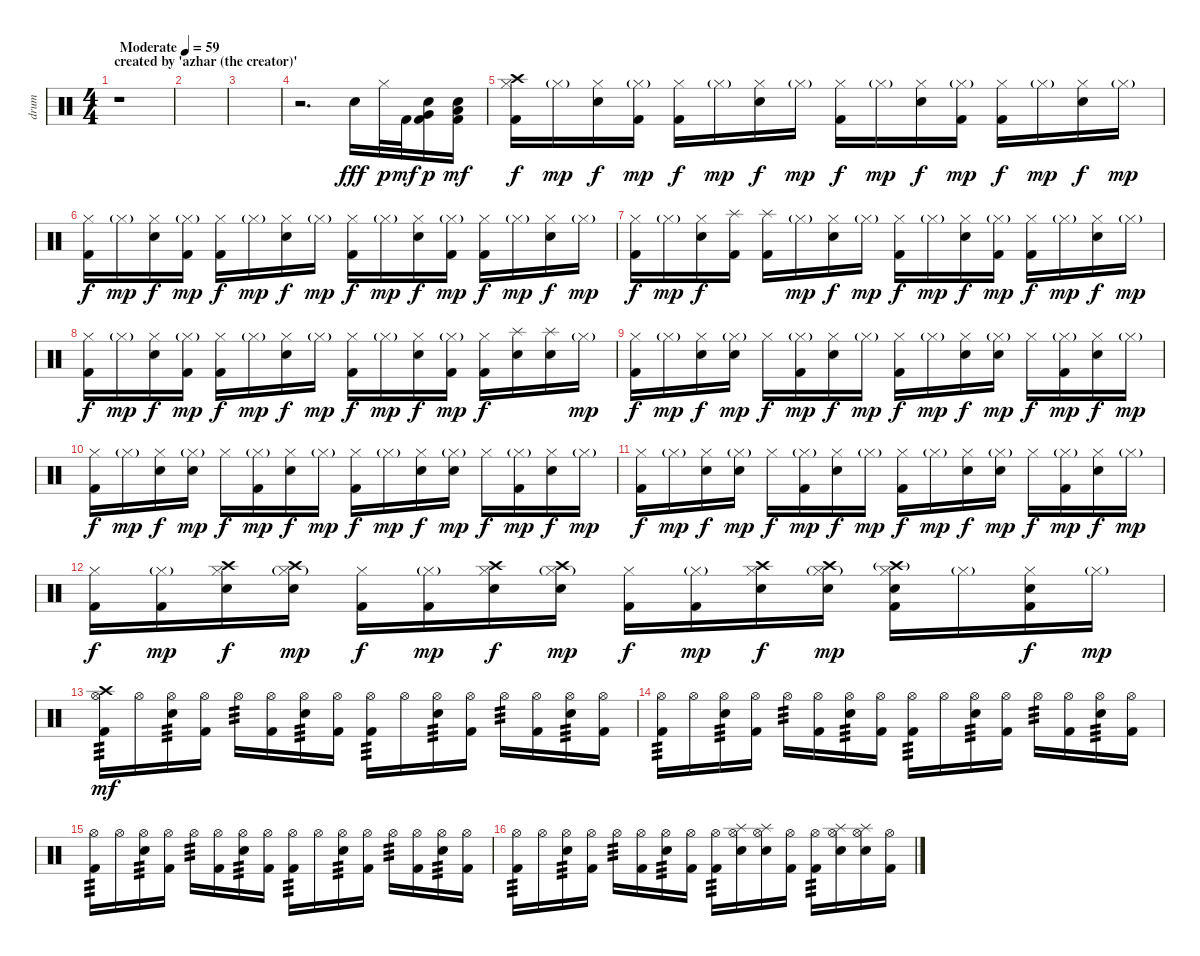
\track ("drum" "drum") {instrument percussion}
\staff {score}
\articulation defaults
\ts (4 4)
\section ("" "created by 'azhar (the creator)'")
\tempo (59 "Moderate")
\clef neutral
\ks c
r.1{dy fff} |
|
|
r.2{d} "Electric Snare (hit)".16 "Hi-Hat (closed)".32{dy p} "Kick (hit) 2".32{dy mf} ("Very Low Tom (hit)" "Electric Snare (hit)" "Kick (hit) 2").16{dy p} ("Low Floor Tom (hit)" "Electric Snare (hit)" "Kick (hit) 2").16{dy mf} |
("Crash high (hit)" "Hi-Hat (closed)" "Kick (hit) 2").16{dy f} "Hi-Hat (closed)"{g}.16{dy mp} ("Hi-Hat (closed)" "Electric Snare (hit)").16{dy f} ("Hi-Hat (closed)"{g} "Kick (hit) 2").16{dy mp} ("Hi-Hat (closed)" "Kick (hit) 2").16{dy f} "Hi-Hat (closed)"{g}.16{dy mp} ("Hi-Hat (closed)" "Electric Snare (hit)").16{dy f} "Hi-Hat (closed)"{g}.16{dy mp} ("Hi-Hat (closed)" "Kick (hit) 2").16{dy f} "Hi-Hat (closed)"{g}.16{dy mp} ("Hi-Hat (closed)" "Electric Snare (hit)").16{dy f} ("Hi-Hat (closed)"{g} "Kick (hit) 2").16{dy mp} ("Hi-Hat (closed)" "Kick (hit) 2").16{dy f} "Hi-Hat (closed)"{g}.16{dy mp} ("Hi-Hat (closed)" "Electric Snare (hit)").16{dy f} "Hi-Hat (closed)"{g}.16{dy mp} |
("Hi-Hat (closed)" "Kick (hit) 2").16{dy f} "Hi-Hat (closed)"{g}.16{dy mp} ("Hi-Hat (closed)" "Electric Snare (hit)").16{dy f} ("Hi-Hat (closed)"{g} "Kick (hit) 2").16{dy mp} ("Hi-Hat (closed)" "Kick (hit) 2").16{dy f} "Hi-Hat (closed)"{g}.16{dy mp} ("Hi-Hat (closed)" "Electric Snare (hit)").16{dy f} "Hi-Hat (closed)"{g}.16{dy mp} ("Hi-Hat (closed)" "Kick (hit) 2").16{dy f} "Hi-Hat (closed)"{g}.16{dy mp} ("Hi-Hat (closed)" "Electric Snare (hit)").16{dy f} ("Hi-Hat (closed)"{g} "Kick (hit) 2").16{dy mp} ("Hi-Hat (closed)" "Kick (hit) 2").16{dy f} "Hi-Hat (closed)"{g}.16{dy mp} ("Hi-Hat (closed)" "Electric Snare (hit)").16{dy f} "Hi-Hat (closed)"{g}.16{dy mp} |
("Hi-Hat (closed)" "Kick (hit) 2").16{dy f} "Hi-Hat (closed)"{g}.16{dy mp} ("Hi-Hat (closed)" "Electric Snare (hit)").16{dy f} ("Splash (hit)" "Kick (hit) 2").16 ("Splash (hit)" "Kick (hit) 2").16 "Hi-Hat (closed)"{g}.16{dy mp} ("Hi-Hat (closed)" "Electric Snare (hit)").16{dy f} "Hi-Hat (closed)"{g}.16{dy mp} ("Hi-Hat (closed)" "Kick (hit) 2").16{dy f} "Hi-Hat (closed)"{g}.16{dy mp} ("Hi-Hat (closed)" "Electric Snare (hit)").16{dy f} ("Hi-Hat (closed)"{g} "Kick (hit) 2").16{dy mp} ("Hi-Hat (closed)" "Kick (hit) 2").16{dy f} "Hi-Hat (closed)"{g}.16{dy mp} ("Hi-Hat (closed)" "Electric Snare (hit)").16{dy f} "Hi-Hat (closed)"{g}.16{dy mp} |
("Hi-Hat (closed)" "Kick (hit) 2").16{dy f} "Hi-Hat (closed)"{g}.16{dy mp} ("Hi-Hat (closed)" "Electric Snare (hit)").16{dy f} ("Hi-Hat (closed)"{g} "Kick (hit) 2").16{dy mp} ("Hi-Hat (closed)" "Kick (hit) 2").16{dy f} "Hi-Hat (closed)"{g}.16{dy mp} ("Hi-Hat (closed)" "Electric Snare (hit)").16{dy f} "Hi-Hat (closed)"{g}.16{dy mp} ("Hi-Hat (closed)" "Kick (hit) 2").16{dy f} "Hi-Hat (closed)"{g}.16{dy mp} ("Hi-Hat (closed)" "Electric Snare (hit)").16{dy f} ("Hi-Hat (closed)"{g} "Kick (hit) 2").16{dy mp} ("Hi-Hat (closed)" "Kick (hit) 2").16{dy f} ("Splash (hit)" "Electric Snare (hit)").16 ("Splash (hit)" "Electric Snare (hit)").16 "Hi-Hat (closed)"{g}.16{dy mp} |
("Hi-Hat (closed)" "Kick (hit) 2").16{dy f} "Hi-Hat (closed)"{g}.16{dy mp} ("Hi-Hat (closed)" "Electric Snare (hit)").16{dy f} ("Hi-Hat (closed)"{g} "Electric Snare (hit)").16{dy mp} "Hi-Hat (closed)".16{dy f} ("Hi-Hat (closed)"{g} "Kick (hit) 2").16{dy mp} ("Hi-Hat (closed)" "Electric Snare (hit)").16{dy f} "Hi-Hat (closed)"{g}.16{dy mp} ("Hi-Hat (closed)" "Kick (hit) 2").16{dy f} "Hi-Hat (closed)"{g}.16{dy mp} ("Hi-Hat (closed)" "Electric Snare (hit)").16{dy f} ("Hi-Hat (closed)"{g} "Electric Snare (hit)").16{dy mp} "Hi-Hat (closed)".16{dy f} ("Hi-Hat (closed)"{g} "Kick (hit) 2").16{dy mp} ("Hi-Hat (closed)" "Electric Snare (hit)").16{dy f} "Hi-Hat (closed)"{g}.16{dy mp} |
("Hi-Hat (closed)" "Kick (hit) 2").16{dy f} "Hi-Hat (closed)"{g}.16{dy mp} ("Hi-Hat (closed)" "Electric Snare (hit)").16{dy f} ("Hi-Hat (closed)"{g} "Electric Snare (hit)").16{dy mp} "Hi-Hat (closed)".16{dy f} ("Hi-Hat (closed)"{g} "Kick (hit) 2").16{dy mp} ("Hi-Hat (closed)" "Electric Snare (hit)").16{dy f} "Hi-Hat (closed)"{g}.16{dy mp} ("Hi-Hat (closed)" "Kick (hit) 2").16{dy f} "Hi-Hat (closed)"{g}.16{dy mp} ("Hi-Hat (closed)" "Electric Snare (hit)").16{dy f} ("Hi-Hat (closed)"{g} "Electric Snare (hit)").16{dy mp} "Hi-Hat (closed)".16{dy f} ("Hi-Hat (closed)"{g} "Kick (hit) 2").16{dy mp} ("Hi-Hat (closed)" "Electric Snare (hit)").16{dy f} "Hi-Hat (closed)"{g}.16{dy mp} |
("Hi-Hat (closed)" "Kick (hit) 2").16{dy f} "Hi-Hat (closed)"{g}.16{dy mp} ("Hi-Hat (closed)" "Electric Snare (hit)").16{dy f} ("Hi-Hat (closed)"{g} "Electric Snare (hit)").16{dy mp} "Hi-Hat (closed)".16{dy f} ("Hi-Hat (closed)"{g} "Kick (hit) 2").16{dy mp} ("Hi-Hat (closed)" "Electric Snare (hit)").16{dy f} "Hi-Hat (closed)"{g}.16{dy mp} ("Hi-Hat (closed)" "Kick (hit) 2").16{dy f} "Hi-Hat (closed)"{g}.16{dy mp} ("Hi-Hat (closed)" "Electric Snare (hit)").16{dy f} ("Hi-Hat (closed)"{g} "Electric Snare (hit)").16{dy mp} "Hi-Hat (closed)".16{dy f} ("Hi-Hat (closed)"{g} "Kick (hit) 2").16{dy mp} ("Hi-Hat (closed)" "Electric Snare (hit)").16{dy f} "Hi-Hat (closed)"{g}.16{dy mp} |
("Hi-Hat (closed)" "Kick (hit) 2").16{dy f} ("Hi-Hat (closed)"{g} "Kick (hit) 2").16{dy mp} ("Crash high (hit)" "Hi-Hat (closed)" "Electric Snare (hit)").16{dy f} ("Crash high (hit)" "Hi-Hat (closed)"{g} "Electric Snare (hit)").16{dy mp} ("Hi-Hat (closed)" "Kick (hit) 2").16{dy f} ("Hi-Hat (closed)"{g} "Kick (hit) 2").16{dy mp} ("Crash high (hit)" "Hi-Hat (closed)" "Electric Snare (hit)").16{dy f} ("Crash high (hit)" "Hi-Hat (closed)"{g} "Electric Snare (hit)").16{dy mp} ("Hi-Hat (closed)" "Kick (hit) 2").16{dy f} ("Hi-Hat (closed)"{g} "Kick (hit) 2").16{dy mp} ("Crash high (hit)" "Hi-Hat (closed)" "Electric Snare (hit)").16{dy f} ("Crash high (hit)" "Hi-Hat (closed)"{g} "Electric Snare (hit)").16{dy mp} ("Crash high (hit)"{g} "Hi-Hat (closed)" "Electric Snare (hit)" "Kick (hit) 2").16 "Hi-Hat (closed)"{g}.16 ("Hi-Hat (closed)" "Electric Snare (hit)" "Kick (hit) 2").16{dy f} "Hi-Hat (closed)"{g}.16{dy mp} |
("Crash high (hit)" "Hi-Hat (open)" "Kick (hit) 2").16{tp 3 dy mf} "Hi-Hat (open)".16 ("Hi-Hat (open)" "Electric Snare (hit)").16{tp 3} ("Hi-Hat (open)" "Kick (hit) 2").16 "Hi-Hat (open)".16{tp 3} ("Hi-Hat (open)" "Kick (hit) 2").16 ("Hi-Hat (open)" "Electric Snare (hit)").16{tp 3} ("Hi-Hat (open)" "Kick (hit) 2").16 ("Hi-Hat (open)" "Kick (hit) 2").16{tp 3} "Hi-Hat (open)".16 ("Hi-Hat (open)" "Electric Snare (hit)").16{tp 3} ("Hi-Hat (open)" "Kick (hit) 2").16 "Hi-Hat (open)".16{tp 3} ("Hi-Hat (open)" "Kick (hit) 2").16 ("Hi-Hat (open)" "Electric Snare (hit)").16{tp 3} ("Hi-Hat (open)" "Kick (hit) 2").16 |
("Hi-Hat (open)" "Kick (hit) 2").16{tp 3} "Hi-Hat (open)".16 ("Hi-Hat (open)" "Electric Snare (hit)").16{tp 3} ("Hi-Hat (open)" "Kick (hit) 2").16 "Hi-Hat (open)".16{tp 3} ("Hi-Hat (open)" "Kick (hit) 2").16 ("Hi-Hat (open)" "Electric Snare (hit)").16{tp 3} ("Hi-Hat (open)" "Kick (hit) 2").16 ("Hi-Hat (open)" "Kick (hit) 2").16{tp 3} "Hi-Hat (open)".16 ("Hi-Hat (open)" "Electric Snare (hit)").16{tp 3} ("Hi-Hat (open)" "Kick (hit) 2").16 "Hi-Hat (open)".16{tp 3} ("Hi-Hat (open)" "Kick (hit) 2").16 ("Hi-Hat (open)" "Electric Snare (hit)").16{tp 3} ("Hi-Hat (open)" "Kick (hit) 2").16 |
("Hi-Hat (open)" "Kick (hit) 2").16{tp 3} "Hi-Hat (open)".16 ("Hi-Hat (open)" "Electric Snare (hit)").16{tp 3} ("Hi-Hat (open)" "Kick (hit) 2").16 "Hi-Hat (open)".16{tp 3} ("Hi-Hat (open)" "Kick (hit) 2").16 ("Hi-Hat (open)" "Electric Snare (hit)").16{tp 3} ("Hi-Hat (open)" "Kick (hit) 2").16 ("Hi-Hat (open)" "Kick (hit) 2").16{tp 3} "Hi-Hat (open)".16 ("Hi-Hat (open)" "Electric Snare (hit)").16{tp 3} ("Hi-Hat (open)" "Kick (hit) 2").16 "Hi-Hat (open)".16{tp 3} ("Hi-Hat (open)" "Kick (hit) 2").16 ("Hi-Hat (open)" "Electric Snare (hit)").16{tp 3} ("Hi-Hat (open)" "Kick (hit) 2").16 |
("Hi-Hat (open)" "Kick (hit) 2").16{tp 3} "Hi-Hat (open)".16 ("Hi-Hat (open)" "Electric Snare (hit)").16{tp 3} ("Hi-Hat (open)" "Kick (hit) 2").16 "Hi-Hat (open)".16{tp 3} ("Hi-Hat (open)" "Kick (hit) 2").16 ("Hi-Hat (open)" "Electric Snare (hit)").16{tp 3} ("Hi-Hat (open)" "Kick (hit) 2").16 ("Hi-Hat (open)" "Kick (hit) 2").16{tp 3} ("Splash (hit)" "Hi-Hat (open)" "Electric Snare (hit)").16 ("Splash (hit)" "Hi-Hat (open)" "Electric Snare (hit)").16 ("Hi-Hat (open)" "Kick (hit) 2").16 ("Hi-Hat (open)" "Kick (hit) 2").16{tp 3} ("Splash (hit)" "Hi-Hat (open)" "Electric Snare (hit)").16 ("Splash (hit)" "Hi-Hat (open)" "Electric Snare (hit)").16 ("Hi-Hat (open)" "Kick (hit) 2").16
